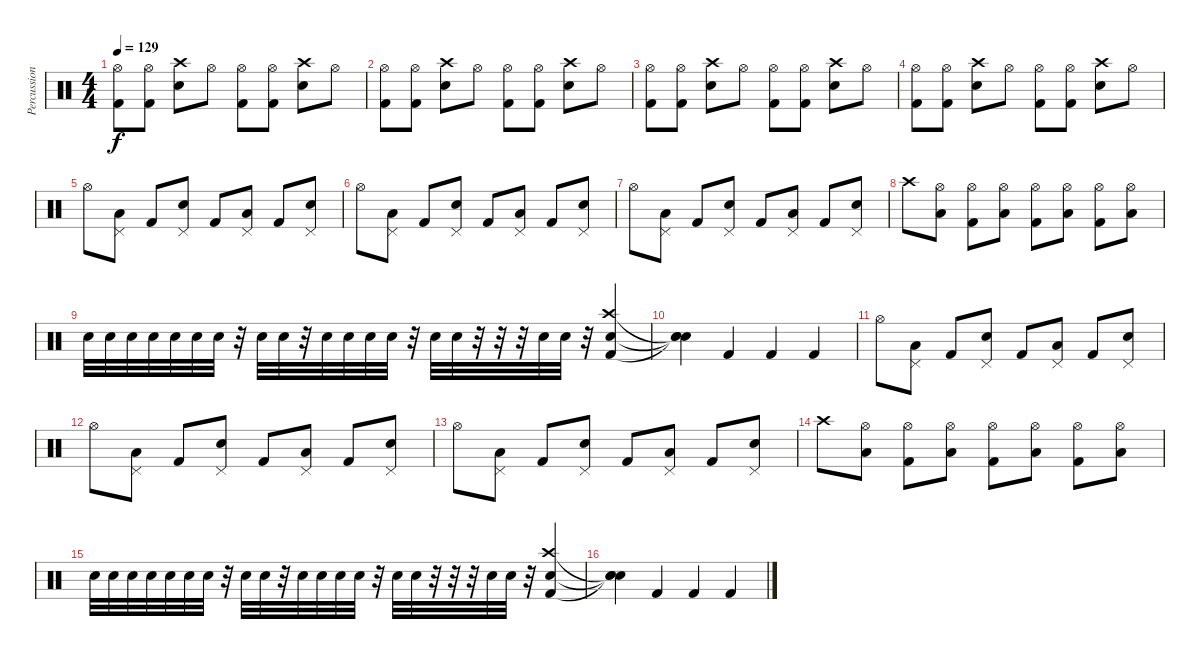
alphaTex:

\track ("Percussion" "Percussion") {instrument percussion}
\staff {score}
\articulation defaults
\ts (4 4)
\tempo 129
\clef neutral
\ks c
("Hi-Hat (open)" "Kick (hit) 2").8{dy f} ("Hi-Hat (open)" "Kick (hit) 2").8 ("Crash high (hit)" "Electric Snare (hit)").8 "Hi-Hat (open)".8 ("Hi-Hat (open)" "Kick (hit) 2").8 ("Hi-Hat (open)" "Kick (hit) 2").8 ("Crash high (hit)" "Electric Snare (hit)").8 "Hi-Hat (open)".8 |
("Hi-Hat (open)" "Kick (hit) 2").8 ("Hi-Hat (open)" "Kick (hit) 2").8 ("Crash high (hit)" "Electric Snare (hit)").8 "Hi-Hat (open)".8 ("Hi-Hat (open)" "Kick (hit) 2").8 ("Hi-Hat (open)" "Kick (hit) 2").8 ("Crash high (hit)" "Electric Snare (hit)").8 "Hi-Hat (open)".8 |
("Hi-Hat (open)" "Kick (hit) 2").8 ("Hi-Hat (open)" "Kick (hit) 2").8 ("Crash high (hit)" "Electric Snare (hit)").8 "Hi-Hat (open)".8 ("Hi-Hat (open)" "Kick (hit) 2").8 ("Hi-Hat (open)" "Kick (hit) 2").8 ("Crash high (hit)" "Electric Snare (hit)").8 "Hi-Hat (open)".8 |
("Hi-Hat (open)" "Kick (hit) 2").8 ("Hi-Hat (open)" "Kick (hit) 2").8 ("Crash high (hit)" "Electric Snare (hit)").8 "Hi-Hat (open)".8 ("Hi-Hat (open)" "Kick (hit) 2").8 ("Hi-Hat (open)" "Kick (hit) 2").8 ("Crash high (hit)" "Electric Snare (hit)").8 "Hi-Hat (open)".8 |
"Hi-Hat (open)".8 ("Pedal Hi-Hat (hit)" "Low Tom (hit)").8 "Kick (hit) 2".8 ("Pedal Hi-Hat (hit)" "Electric Snare (hit)").8 "Kick (hit) 2".8 ("Pedal Hi-Hat (hit)" "Low Tom (hit)").8 "Kick (hit) 2".8 ("Pedal Hi-Hat (hit)" "Electric Snare (hit)").8 |
"Hi-Hat (open)".8 ("Pedal Hi-Hat (hit)" "Low Tom (hit)").8 "Kick (hit) 2".8 ("Pedal Hi-Hat (hit)" "Electric Snare (hit)").8 "Kick (hit) 2".8 ("Pedal Hi-Hat (hit)" "Low Tom (hit)").8 "Kick (hit) 2".8 ("Pedal Hi-Hat (hit)" "Electric Snare (hit)").8 |
"Hi-Hat (open)".8 ("Pedal Hi-Hat (hit)" "Low Tom (hit)").8 "Kick (hit) 2".8 ("Pedal Hi-Hat (hit)" "Electric Snare (hit)").8 "Kick (hit) 2".8 ("Pedal Hi-Hat (hit)" "Low Tom (hit)").8 "Kick (hit) 2".8 ("Pedal Hi-Hat (hit)" "Electric Snare (hit)").8 |
"Crash high (hit)".8 ("Hi-Hat (open)" "Low Tom (hit)").8 ("Hi-Hat (open)" "Kick (hit) 2").8 ("Hi-Hat (open)" "Low Tom (hit)").8 ("Hi-Hat (open)" "Kick (hit) 2").8 ("Hi-Hat (open)" "Low Tom (hit)").8 ("Hi-Hat (open)" "Kick (hit) 2").8 ("Hi-Hat (open)" "Low Tom (hit)").8 |
"Electric Snare (hit)".32 "Electric Snare (hit)".32 "Electric Snare (hit)".32 "Electric Snare (hit)".32 "Electric Snare (hit)".32 "Electric Snare (hit)".32 "Electric Snare (hit)".32 r.32 "Electric Snare (hit)".32 "Electric Snare (hit)".32 r.32 "Electric Snare (hit)".32 "Electric Snare (hit)".32 "Electric Snare (hit)".32 "Electric Snare (hit)".32 r.32 "Electric Snare (hit)".32 "Electric Snare (hit)".32 r.32 r.32 r.32 "Electric Snare (hit)".32 "Electric Snare (hit)".32 r.32 ("Crash high (hit)" "Electric Snare (hit)" "Kick (hit) 2").4 |
("Snare (hit)"{t} "Snare (hit)"{t} "Snare (hit)"{t}).4 "Kick (hit) 2".4 "Kick (hit) 2".4 "Kick (hit) 2".4 |
"Hi-Hat (open)".8 ("Pedal Hi-Hat (hit)" "Low Tom (hit)").8 "Kick (hit) 2".8 ("Pedal Hi-Hat (hit)" "Electric Snare (hit)").8 "Kick (hit) 2".8 ("Pedal Hi-Hat (hit)" "Low Tom (hit)").8 "Kick (hit) 2".8 ("Pedal Hi-Hat (hit)" "Electric Snare (hit)").8 |
"Hi-Hat (open)".8 ("Pedal Hi-Hat (hit)" "Low Tom (hit)").8 "Kick (hit) 2".8 ("Pedal Hi-Hat (hit)" "Electric Snare (hit)").8 "Kick (hit) 2".8 ("Pedal Hi-Hat (hit)" "Low Tom (hit)").8 "Kick (hit) 2".8 ("Pedal Hi-Hat (hit)" "Electric Snare (hit)").8 |
"Hi-Hat (open)".8 ("Pedal Hi-Hat (hit)" "Low Tom (hit)").8 "Kick (hit) 2".8 ("Pedal Hi-Hat (hit)" "Electric Snare (hit)").8 "Kick (hit) 2".8 ("Pedal Hi-Hat (hit)" "Low Tom (hit)").8 "Kick (hit) 2".8 ("Pedal Hi-Hat (hit)" "Electric Snare (hit)").8 |
"Crash high (hit)".8 ("Hi-Hat (open)" "Low Tom (hit)").8 ("Hi-Hat (open)" "Kick (hit) 2").8 ("Hi-Hat (open)" "Low Tom (hit)").8 ("Hi-Hat (open)" "Kick (hit) 2").8 ("Hi-Hat (open)" "Low Tom (hit)").8 ("Hi-Hat (open)" "Kick (hit) 2").8 ("Hi-Hat (open)" "Low Tom (hit)").8 |
"Electric Snare (hit)".32 "Electric Snare (hit)".32 "Electric Snare (hit)".32 "Electric Snare (hit)".32 "Electric Snare (hit)".32 "Electric Snare (hit)".32 "Electric Snare (hit)".32 r.32 "Electric Snare (hit)".32 "Electric Snare (hit)".32 r.32 "Electric Snare (hit)".32 "Electric Snare (hit)".32 "Electric Snare (hit)".32 "Electric Snare (hit)".32 r.32 "Electric Snare (hit)".32 "Electric Snare (hit)".32 r.32 r.32 r.32 "Electric Snare (hit)".32 "Electric Snare (hit)".32 r.32 ("Crash high (hit)" "Electric Snare (hit)" "Kick (hit) 2").4 |
("Snare (hit)"{t} "Snare (hit)"{t} "Snare (hit)"{t}).4 "Kick (hit) 2".4 "Kick (hit) 2".4 "Kick (hit) 2".4
